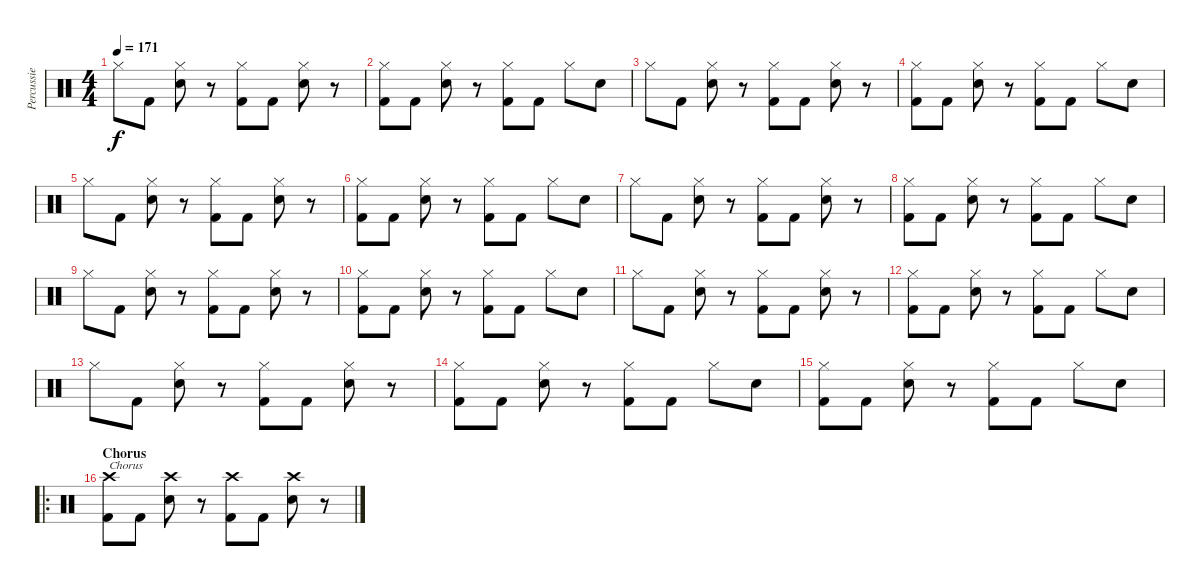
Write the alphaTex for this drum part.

\track ("Percussie" "Percussie") {instrument percussion}
\staff {score}
\articulation defaults
\ts (4 4)
\tempo 171
\clef neutral
\ks c "Hi-Hat (closed)".8{dy f} "Kick (hit) 2".8
("Hi-Hat (closed)" "Snare (hit) 2").8 r.8 ("Hi-Hat (closed)" "Kick (hit) 2").8 "Kick (hit) 2".8 ("Hi-Hat (closed)" "Snare (hit) 2").8 r.8 |
("Hi-Hat (closed)" "Kick (hit) 2").8 "Kick (hit) 2".8 ("Hi-Hat (closed)" "Snare (hit) 2").8 r.8 ("Hi-Hat (closed)" "Kick (hit) 2").8 "Kick (hit) 2".8 "Hi-Hat (closed)".8 "Snare (hit) 2".8 |
"Hi-Hat (closed)".8 "Kick (hit) 2".8 ("Hi-Hat (closed)" "Snare (hit) 2").8 r.8 ("Hi-Hat (closed)" "Kick (hit) 2").8 "Kick (hit) 2".8 ("Hi-Hat (closed)" "Snare (hit) 2").8 r.8 |
("Hi-Hat (closed)" "Kick (hit) 2").8 "Kick (hit) 2".8 ("Hi-Hat (closed)" "Snare (hit) 2").8 r.8 ("Hi-Hat (closed)" "Kick (hit) 2").8 "Kick (hit) 2".8 "Hi-Hat (closed)".8 "Snare (hit) 2".8 |
"Hi-Hat (closed)".8 "Kick (hit) 2".8 ("Hi-Hat (closed)" "Snare (hit) 2").8 r.8 ("Hi-Hat (closed)" "Kick (hit) 2").8 "Kick (hit) 2".8 ("Hi-Hat (closed)" "Snare (hit) 2").8 r.8 |
("Hi-Hat (closed)" "Kick (hit) 2").8 "Kick (hit) 2".8 ("Hi-Hat (closed)" "Snare (hit) 2").8 r.8 ("Hi-Hat (closed)" "Kick (hit) 2").8 "Kick (hit) 2".8 "Hi-Hat (closed)".8 "Snare (hit) 2".8 |
"Hi-Hat (closed)".8 "Kick (hit) 2".8 ("Hi-Hat (closed)" "Snare (hit) 2").8 r.8 ("Hi-Hat (closed)" "Kick (hit) 2").8 "Kick (hit) 2".8 ("Hi-Hat (closed)" "Snare (hit) 2").8 r.8 |
("Hi-Hat (closed)" "Kick (hit) 2").8 "Kick (hit) 2".8 ("Hi-Hat (closed)" "Snare (hit) 2").8 r.8 ("Hi-Hat (closed)" "Kick (hit) 2").8 "Kick (hit) 2".8 "Hi-Hat (closed)".8 "Snare (hit) 2".8 |
"Hi-Hat (closed)".8 "Kick (hit) 2".8 ("Hi-Hat (closed)" "Snare (hit) 2").8 r.8 ("Hi-Hat (closed)" "Kick (hit) 2").8 "Kick (hit) 2".8 ("Hi-Hat (closed)" "Snare (hit) 2").8 r.8 |
("Hi-Hat (closed)" "Kick (hit) 2").8 "Kick (hit) 2".8 ("Hi-Hat (closed)" "Snare (hit) 2").8 r.8 ("Hi-Hat (closed)" "Kick (hit) 2").8 "Kick (hit) 2".8 "Hi-Hat (closed)".8 "Snare (hit) 2".8 |
"Hi-Hat (closed)".8 "Kick (hit) 2".8 ("Hi-Hat (closed)" "Snare (hit) 2").8 r.8 ("Hi-Hat (closed)" "Kick (hit) 2").8 "Kick (hit) 2".8 ("Hi-Hat (closed)" "Snare (hit) 2").8 r.8 |
("Hi-Hat (closed)" "Kick (hit) 2").8 "Kick (hit) 2".8 ("Hi-Hat (closed)" "Snare (hit) 2").8 r.8 ("Hi-Hat (closed)" "Kick (hit) 2").8 "Kick (hit) 2".8 "Hi-Hat (closed)".8 "Snare (hit) 2".8 |
"Hi-Hat (closed)".8 "Kick (hit) 2".8 ("Hi-Hat (closed)" "Snare (hit) 2").8 r.8 ("Hi-Hat (closed)" "Kick (hit) 2").8 "Kick (hit) 2".8 ("Hi-Hat (closed)" "Snare (hit) 2").8 r.8 |
("Hi-Hat (closed)" "Kick (hit) 2").8 "Kick (hit) 2".8 ("Hi-Hat (closed)" "Snare (hit) 2").8 r.8 ("Hi-Hat (closed)" "Kick (hit) 2").8 "Kick (hit) 2".8 "Hi-Hat (closed)".8 "Snare (hit) 2".8 |
("Hi-Hat (closed)" "Kick (hit) 2").8 "Kick (hit) 2".8 ("Hi-Hat (closed)" "Snare (hit) 2").8 r.8 ("Hi-Hat (closed)" "Kick (hit) 2").8 "Kick (hit) 2".8 "Hi-Hat (closed)".8 "Snare (hit) 2".8 |
\ro
\section ("" "Chorus")
("Crash high (hit)" "Kick (hit) 2").8{txt "Chorus"} "Kick (hit) 2".8 ("Crash high (hit)" "Snare (hit) 2").8 r.8 ("Crash high (hit)" "Kick (hit) 2").8 "Kick (hit) 2".8 ("Crash high (hit)" "Snare (hit) 2").8 r.8
